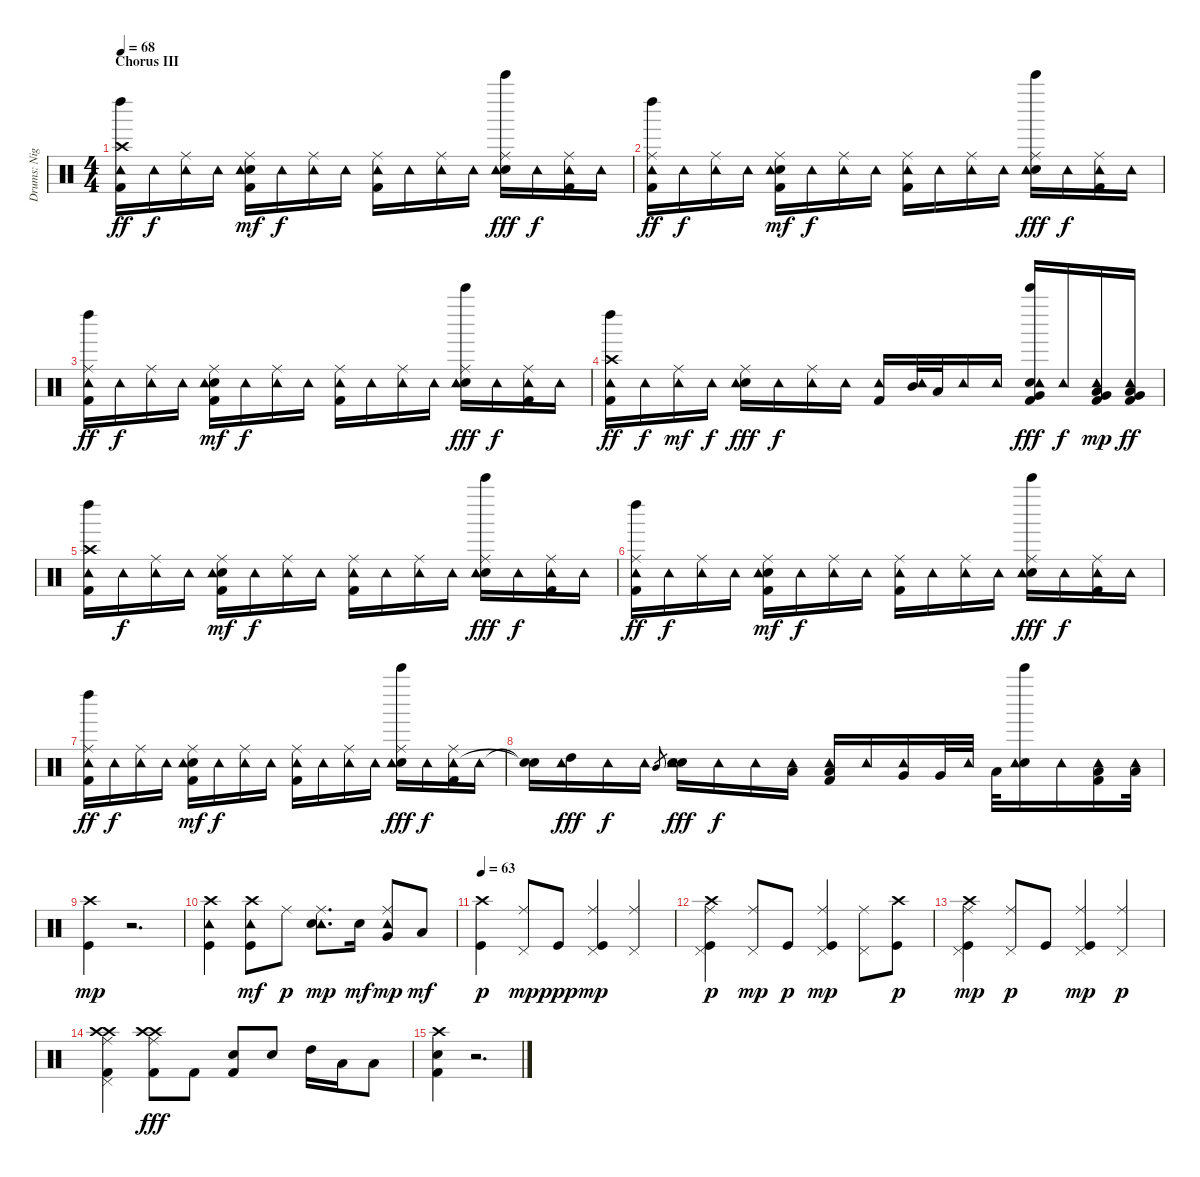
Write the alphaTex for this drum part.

\track ("Drums: Nigel Olsson" "Drums: Nig") {instrument percussion}
\staff {score}
\articulation defaults
\ts (4 4)
\section ("" "Chorus III")
\tempo 68
\clef neutral
\ks c
("Crash high (hit)" "Tambourine (hit)" "Kick (hit) 2" "Left Maraca (hit)").16{dy ff} "Tambourine (hit)".16{dy f} ("Ride (middle)" "Tambourine (hit)").16 "Tambourine (hit)".16 ("Ride (middle)" "Snare (hit) 2" "Tambourine (hit)" "Kick (hit) 2").16{dy mf} "Tambourine (hit)".16{dy f} ("Ride (middle)" "Tambourine (hit)").16 "Tambourine (hit)".16 ("Ride (middle)" "Tambourine (hit)" "Kick (hit) 2").16 "Tambourine (hit)".16 ("Ride (middle)" "Tambourine (hit)").16 "Tambourine (hit)".16 ("Ride (middle)" "Snare (hit) 2" "Tambourine (hit)" "Bell Tree (hit)").16{dy fff} "Tambourine (hit)".16{dy f} ("Ride (middle)" "Tambourine (hit)" "Kick (hit) 2").16 "Tambourine (hit)".16 |
("Ride (middle)" "Tambourine (hit)" "Kick (hit) 2" "Left Maraca (hit)").16{dy ff} "Tambourine (hit)".16{dy f} ("Ride (middle)" "Tambourine (hit)").16 "Tambourine (hit)".16 ("Ride (middle)" "Snare (hit) 2" "Tambourine (hit)" "Kick (hit) 2").16{dy mf} "Tambourine (hit)".16{dy f} ("Ride (middle)" "Tambourine (hit)").16 "Tambourine (hit)".16 ("Ride (middle)" "Tambourine (hit)" "Kick (hit) 2").16 "Tambourine (hit)".16 ("Ride (middle)" "Tambourine (hit)").16 "Tambourine (hit)".16 ("Ride (middle)" "Snare (hit) 2" "Tambourine (hit)" "Bell Tree (hit)").16{dy fff} "Tambourine (hit)".16{dy f} ("Ride (middle)" "Tambourine (hit)" "Kick (hit) 2").16 "Tambourine (hit)".16 |
("Ride (middle)" "Tambourine (hit)" "Kick (hit) 2" "Left Maraca (hit)").16{dy ff} "Tambourine (hit)".16{dy f} ("Ride (middle)" "Tambourine (hit)").16 "Tambourine (hit)".16 ("Ride (middle)" "Snare (hit) 2" "Tambourine (hit)" "Kick (hit) 2").16{dy mf} "Tambourine (hit)".16{dy f} ("Ride (middle)" "Tambourine (hit)").16 "Tambourine (hit)".16 ("Ride (middle)" "Tambourine (hit)" "Kick (hit) 2").16 "Tambourine (hit)".16 ("Ride (middle)" "Tambourine (hit)").16 "Tambourine (hit)".16 ("Ride (middle)" "Snare (hit) 2" "Tambourine (hit)" "Bell Tree (hit)").16{dy fff} "Tambourine (hit)".16{dy f} ("Ride (middle)" "Tambourine (hit)" "Kick (hit) 2").16 "Tambourine (hit)".16 |
("Crash high (hit)" "Tambourine (hit)" "Kick (hit) 2" "Left Maraca (hit)").16{dy ff} "Tambourine (hit)".16{dy f} ("Ride (middle)" "Tambourine (hit)").16{dy mf} "Tambourine (hit)".16{dy f} ("Ride (middle)" "Snare (hit) 2" "Tambourine (hit)").16{dy fff} "Tambourine (hit)".16{dy f} ("Ride (middle)" "Tambourine (hit)").16 "Tambourine (hit)".16 ("Tambourine (hit)" "Kick (hit) 2").16 ("Tambourine (hit)" "Mid Tom (hit)").32 "Low Tom (hit)".32 "Tambourine (hit)".16 "Tambourine (hit)".16 ("Very Low Tom (hit)" "Bell Tree (hit)" "Snare (hit) 2" "Tambourine (hit)" "Kick (hit) 2").16{dy fff} "Tambourine (hit)".16{dy f} ("Very Low Tom (hit)" "Tambourine (hit)" "Kick (hit) 2" "Low Floor Tom (hit)").16{dy mp} ("Very Low Tom (hit)" "Tambourine (hit)" "Kick (hit) 2" "Low Floor Tom (hit)").16{dy ff} |
("Crash high (hit)" "Tambourine (hit)" "Kick (hit) 2" "Left Maraca (hit)").16 "Tambourine (hit)".16{dy f} ("Ride (middle)" "Tambourine (hit)").16 "Tambourine (hit)".16 ("Ride (middle)" "Snare (hit) 2" "Tambourine (hit)" "Kick (hit) 2").16{dy mf} "Tambourine (hit)".16{dy f} ("Ride (middle)" "Tambourine (hit)").16 "Tambourine (hit)".16 ("Ride (middle)" "Tambourine (hit)" "Kick (hit) 2").16 "Tambourine (hit)".16 ("Ride (middle)" "Tambourine (hit)").16 "Tambourine (hit)".16 ("Ride (middle)" "Snare (hit) 2" "Tambourine (hit)" "Bell Tree (hit)").16{dy fff} "Tambourine (hit)".16{dy f} ("Ride (middle)" "Tambourine (hit)" "Kick (hit) 2").16 "Tambourine (hit)".16 |
("Ride (middle)" "Tambourine (hit)" "Kick (hit) 2" "Left Maraca (hit)").16{dy ff} "Tambourine (hit)".16{dy f} ("Ride (middle)" "Tambourine (hit)").16 "Tambourine (hit)".16 ("Ride (middle)" "Snare (hit) 2" "Tambourine (hit)" "Kick (hit) 2").16{dy mf} "Tambourine (hit)".16{dy f} ("Ride (middle)" "Tambourine (hit)").16 "Tambourine (hit)".16 ("Ride (middle)" "Tambourine (hit)" "Kick (hit) 2").16 "Tambourine (hit)".16 ("Ride (middle)" "Tambourine (hit)").16 "Tambourine (hit)".16 ("Ride (middle)" "Snare (hit) 2" "Tambourine (hit)" "Bell Tree (hit)").16{dy fff} "Tambourine (hit)".16{dy f} ("Ride (middle)" "Tambourine (hit)" "Kick (hit) 2").16 "Tambourine (hit)".16 |
("Ride (middle)" "Tambourine (hit)" "Kick (hit) 2" "Left Maraca (hit)").16{dy ff} "Tambourine (hit)".16{dy f} ("Ride (middle)" "Tambourine (hit)").16 "Tambourine (hit)".16 ("Ride (middle)" "Snare (hit) 2" "Tambourine (hit)" "Kick (hit) 2").16{dy mf} "Tambourine (hit)".16{dy f} ("Ride (middle)" "Tambourine (hit)").16 "Tambourine (hit)".16 ("Ride (middle)" "Tambourine (hit)" "Kick (hit) 2").16 "Tambourine (hit)".16 ("Ride (middle)" "Tambourine (hit)").16 "Tambourine (hit)".16 ("Ride (middle)" "Snare (hit) 2" "Tambourine (hit)" "Bell Tree (hit)").16{dy fff} "Tambourine (hit)".16{dy f} ("Ride (middle)" "Tambourine (hit)" "Kick (hit) 2").16 "Tambourine (hit)".16 |
("Snare (hit)"{t} "Snare (hit)"{t}).16 ("High Tom (hit)" "Tambourine (hit)").16{dy fff} "Tambourine (hit)".16{dy f} "Tambourine (hit)".16 "Mid Tom (hit)".8{gr} ("Snare (hit) 2" "Snare (hit) 2" "Tambourine (hit)").16{dy fff} "Tambourine (hit)".16{dy f} "Tambourine (hit)".16 ("Low Tom (hit)" "Tambourine (hit)").16 ("Low Tom (hit)" "Tambourine (hit)" "Kick (hit) 2").16 "Tambourine (hit)".16 ("Very Low Tom (hit)" "Tambourine (hit)").16 "Very Low Tom (hit)".32 "Tambourine (hit)".32 "Low Floor Tom (hit)".32 ("Snare (hit) 2" "Tambourine (hit)" "Bell Tree (hit)").16 "Tambourine (hit)".16 ("Low Floor Tom (hit)" "Tambourine (hit)" "Kick (hit) 2").16 ("Low Floor Tom (hit)" "Tambourine (hit)").32 |
("Kick (hit)" "Crash high (hit)").4{dy mp} r.2{d} |
("Tambourine (hit)" "Kick (hit)" "Crash high (hit)").4 ("Tambourine (hit)" "Kick (hit)" "Crash high (hit)").8{dy mf} "Ride (middle)".8{dy p} ("Tambourine (hit)" "Snare (hit) 2" "Ride (middle)").8{d dy mp} "Snare (hit) 2".16{dy mf} ("Tambourine (hit)" "Very Low Tom (hit)" "Ride (middle)").8{dy mp} "Low Floor Tom (hit)".8{dy mf} |
\tempo 63
("Kick (hit)" "Crash high (hit)").4{dy p} ("Pedal Hi-Hat (hit)" "Ride (middle)").8{dy mp} "Kick (hit)".8{dy ppp} ("Pedal Hi-Hat (hit)" "Ride (middle)" "Kick (hit)").4{dy mp} ("Pedal Hi-Hat (hit)" "Ride (middle)").4 |
("Pedal Hi-Hat (hit)" "Ride (middle)" "Kick (hit)" "Crash high (hit)").4{dy p} ("Pedal Hi-Hat (hit)" "Ride (middle)").8{dy mp} "Kick (hit)".8{dy p} ("Kick (hit)" "Pedal Hi-Hat (hit)" "Ride (middle)").4{dy mp} ("Pedal Hi-Hat (hit)" "Ride (middle)").8 ("Kick (hit)" "Crash high (hit)").8{dy p} |
("Kick (hit)" "Crash high (hit)" "Pedal Hi-Hat (hit)" "Ride (middle)").4{dy mp} ("Pedal Hi-Hat (hit)" "Ride (middle)").8{dy p} "Kick (hit)".8 ("Pedal Hi-Hat (hit)" "Ride (middle)" "Kick (hit)").4{dy mp} ("Pedal Hi-Hat (hit)" "Ride (middle)").4{dy p} |
("Pedal Hi-Hat (hit)" "Ride (middle)" "Crash high (hit)" "Crash high (hit)" "Kick (hit) 2").4 ("Crash high (hit)" "Ride (middle)" "Crash high (hit)" "Kick (hit) 2").8{dy fff} "Kick (hit) 2".8 ("Snare (hit) 2" "Kick (hit) 2").8 "Snare (hit) 2".8 "High Tom (hit)".16 "Low Tom (hit)".16 "Low Floor Tom (hit)".8 |
("Crash high (hit)" "Snare (hit) 2" "Kick (hit) 2").4 r.2{d}
